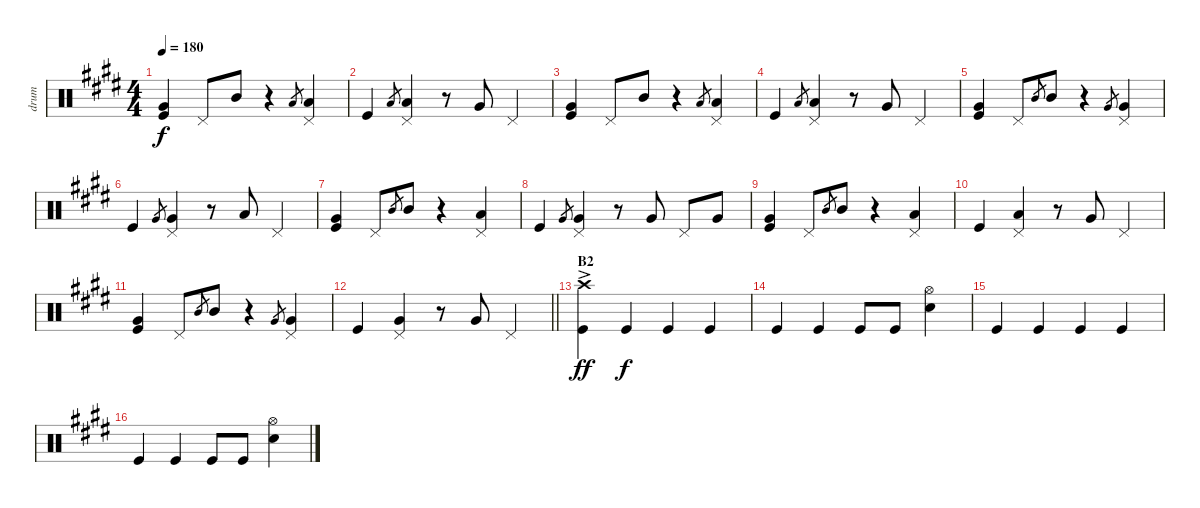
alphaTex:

\track ("drum" "drum") {instrument percussion}
\staff {score}
\articulation defaults
\ts (4 4)
\tempo 180
\clef neutral
\ks e
("Very Low Tom (hit)" "Kick (hit)").4{dy f} "Pedal Hi-Hat (hit)".8 "Mid Tom (hit)".8 r.4 "Low Tom (hit)".8{gr} ("Low Tom (hit)" "Pedal Hi-Hat (hit)").4 |
"Kick (hit)".4 "Low Tom (hit)".8{gr} ("Low Tom (hit)" "Pedal Hi-Hat (hit)").4 r.8 "Very Low Tom (hit)".8 "Pedal Hi-Hat (hit)".4 |
("Very Low Tom (hit)" "Kick (hit)").4 "Pedal Hi-Hat (hit)".8 "Mid Tom (hit)".8 r.4 "Low Tom (hit)".8{gr} ("Low Tom (hit)" "Pedal Hi-Hat (hit)").4 |
"Kick (hit)".4 "Low Tom (hit)".8{gr} ("Low Tom (hit)" "Pedal Hi-Hat (hit)").4 r.8 "Very Low Tom (hit)".8 "Pedal Hi-Hat (hit)".4 |
("Very Low Tom (hit)" "Kick (hit)").4 "Pedal Hi-Hat (hit)".8 "Mid Tom (hit)".8{gr} "Mid Tom (hit)".8 r.4 "Very Low Tom (hit)".8{gr} ("Very Low Tom (hit)" "Pedal Hi-Hat (hit)").4 |
"Kick (hit)".4 "Very Low Tom (hit)".8{gr} ("Very Low Tom (hit)" "Pedal Hi-Hat (hit)").4 r.8 "Low Tom (hit)".8 "Pedal Hi-Hat (hit)".4 |
("Very Low Tom (hit)" "Kick (hit)").4 "Pedal Hi-Hat (hit)".8 "Mid Tom (hit)".8{gr} "Mid Tom (hit)".8 r.4 ("Low Tom (hit)" "Pedal Hi-Hat (hit)").4 |
"Kick (hit)".4 "Very Low Tom (hit)".8{gr} ("Very Low Tom (hit)" "Pedal Hi-Hat (hit)").4 r.8 "Very Low Tom (hit)".8 "Pedal Hi-Hat (hit)".8 "Very Low Tom (hit)".8 |
("Very Low Tom (hit)" "Kick (hit)").4 "Pedal Hi-Hat (hit)".8 "Mid Tom (hit)".8{gr} "Mid Tom (hit)".8 r.4 ("Low Tom (hit)" "Pedal Hi-Hat (hit)").4 |
"Kick (hit)".4 ("Low Tom (hit)" "Pedal Hi-Hat (hit)").4 r.8 "Very Low Tom (hit)".8 "Pedal Hi-Hat (hit)".4 |
("Very Low Tom (hit)" "Kick (hit)").4 "Pedal Hi-Hat (hit)".8 "Mid Tom (hit)".8{gr} "Mid Tom (hit)".8 r.4 "Very Low Tom (hit)".8{gr} ("Very Low Tom (hit)" "Pedal Hi-Hat (hit)").4 |
\barLineRight lightlight "Kick (hit)".4
("Very Low Tom (hit)" "Pedal Hi-Hat (hit)").4 r.8 "Very Low Tom (hit)".8 "Pedal Hi-Hat (hit)".4 |
\section ("" "B2")
("Crash high (hit)"{ac} "Kick (hit)").4{dy ff} "Kick (hit)".4{dy f} "Kick (hit)".4 "Kick (hit)".4 |
"Kick (hit)".4 "Kick (hit)".4 "Kick (hit)".8 "Kick (hit)".8 ("Hi-Hat (open)" "Snare (hit) 2").4 |
"Kick (hit)".4 "Kick (hit)".4 "Kick (hit)".4 "Kick (hit)".4 |
"Kick (hit)".4 "Kick (hit)".4 "Kick (hit)".8 "Kick (hit)".8 ("Hi-Hat (open)" "Snare (hit) 2").4
